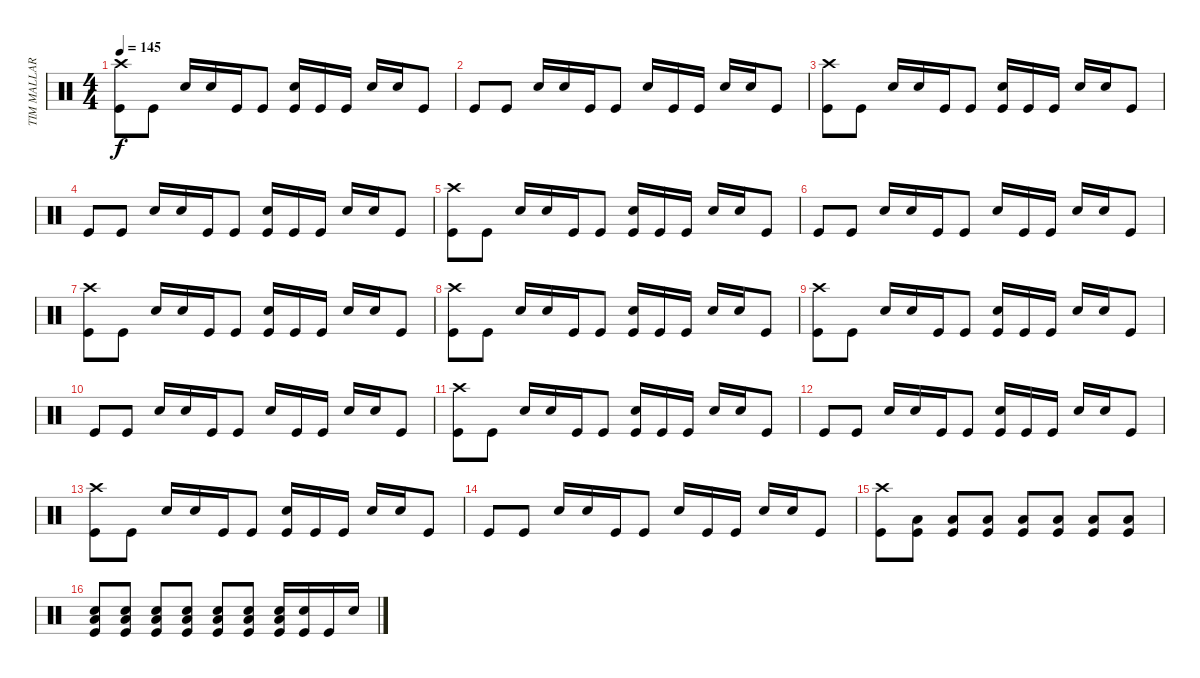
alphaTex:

\track ("TIM MALLARE - drums" "TIM MALLAR") {instrument percussion}
\staff {score}
\articulation defaults
\ts (4 4)
\tempo 145
\clef neutral
\ks c
("Crash high (hit)" "Kick (hit)").8{dy f} "Kick (hit)".8 "Electric Snare (hit)".16 "Electric Snare (hit)".16 "Kick (hit)".16 "Kick (hit)".8 ("Electric Snare (hit)" "Kick (hit)").16 "Kick (hit)".16 "Kick (hit)".16 "Electric Snare (hit)".16 "Electric Snare (hit)".16 "Kick (hit)".8 |
"Kick (hit)".8 "Kick (hit)".8 "Electric Snare (hit)".16 "Electric Snare (hit)".16 "Kick (hit)".16 "Kick (hit)".8 "Electric Snare (hit)".16 "Kick (hit)".16 "Kick (hit)".16 "Electric Snare (hit)".16 "Electric Snare (hit)".16 "Kick (hit)".8 |
("Crash high (hit)" "Kick (hit)").8 "Kick (hit)".8 "Electric Snare (hit)".16 "Electric Snare (hit)".16 "Kick (hit)".16 "Kick (hit)".8 ("Electric Snare (hit)" "Kick (hit)").16 "Kick (hit)".16 "Kick (hit)".16 "Electric Snare (hit)".16 "Electric Snare (hit)".16 "Kick (hit)".8 |
"Kick (hit)".8 "Kick (hit)".8 "Electric Snare (hit)".16 "Electric Snare (hit)".16 "Kick (hit)".16 "Kick (hit)".8 ("Electric Snare (hit)" "Kick (hit)").16 "Kick (hit)".16 "Kick (hit)".16 "Electric Snare (hit)".16 "Electric Snare (hit)".16 "Kick (hit)".8 |
("Crash high (hit)" "Kick (hit)").8 "Kick (hit)".8 "Electric Snare (hit)".16 "Electric Snare (hit)".16 "Kick (hit)".16 "Kick (hit)".8 ("Electric Snare (hit)" "Kick (hit)").16 "Kick (hit)".16 "Kick (hit)".16 "Electric Snare (hit)".16 "Electric Snare (hit)".16 "Kick (hit)".8 |
"Kick (hit)".8 "Kick (hit)".8 "Electric Snare (hit)".16 "Electric Snare (hit)".16 "Kick (hit)".16 "Kick (hit)".8 "Electric Snare (hit)".16 "Kick (hit)".16 "Kick (hit)".16 "Electric Snare (hit)".16 "Electric Snare (hit)".16 "Kick (hit)".8 |
("Crash high (hit)" "Kick (hit)").8 "Kick (hit)".8 "Electric Snare (hit)".16 "Electric Snare (hit)".16 "Kick (hit)".16 "Kick (hit)".8 ("Electric Snare (hit)" "Kick (hit)").16 "Kick (hit)".16 "Kick (hit)".16 "Electric Snare (hit)".16 "Electric Snare (hit)".16 "Kick (hit)".8 |
("Crash high (hit)" "Kick (hit)").8 "Kick (hit)".8 "Electric Snare (hit)".16 "Electric Snare (hit)".16 "Kick (hit)".16 "Kick (hit)".8 ("Electric Snare (hit)" "Kick (hit)").16 "Kick (hit)".16 "Kick (hit)".16 "Electric Snare (hit)".16 "Electric Snare (hit)".16 "Kick (hit)".8 |
("Crash high (hit)" "Kick (hit)").8 "Kick (hit)".8 "Electric Snare (hit)".16 "Electric Snare (hit)".16 "Kick (hit)".16 "Kick (hit)".8 ("Electric Snare (hit)" "Kick (hit)").16 "Kick (hit)".16 "Kick (hit)".16 "Electric Snare (hit)".16 "Electric Snare (hit)".16 "Kick (hit)".8 |
"Kick (hit)".8 "Kick (hit)".8 "Electric Snare (hit)".16 "Electric Snare (hit)".16 "Kick (hit)".16 "Kick (hit)".8 "Electric Snare (hit)".16 "Kick (hit)".16 "Kick (hit)".16 "Electric Snare (hit)".16 "Electric Snare (hit)".16 "Kick (hit)".8 |
("Crash high (hit)" "Kick (hit)").8 "Kick (hit)".8 "Electric Snare (hit)".16 "Electric Snare (hit)".16 "Kick (hit)".16 "Kick (hit)".8 ("Electric Snare (hit)" "Kick (hit)").16 "Kick (hit)".16 "Kick (hit)".16 "Electric Snare (hit)".16 "Electric Snare (hit)".16 "Kick (hit)".8 |
"Kick (hit)".8 "Kick (hit)".8 "Electric Snare (hit)".16 "Electric Snare (hit)".16 "Kick (hit)".16 "Kick (hit)".8 ("Electric Snare (hit)" "Kick (hit)").16 "Kick (hit)".16 "Kick (hit)".16 "Electric Snare (hit)".16 "Electric Snare (hit)".16 "Kick (hit)".8 |
("Crash high (hit)" "Kick (hit)").8 "Kick (hit)".8 "Electric Snare (hit)".16 "Electric Snare (hit)".16 "Kick (hit)".16 "Kick (hit)".8 ("Electric Snare (hit)" "Kick (hit)").16 "Kick (hit)".16 "Kick (hit)".16 "Electric Snare (hit)".16 "Electric Snare (hit)".16 "Kick (hit)".8 |
"Kick (hit)".8 "Kick (hit)".8 "Electric Snare (hit)".16 "Electric Snare (hit)".16 "Kick (hit)".16 "Kick (hit)".8 "Electric Snare (hit)".16 "Kick (hit)".16 "Kick (hit)".16 "Electric Snare (hit)".16 "Electric Snare (hit)".16 "Kick (hit)".8 |
("Crash high (hit)" "Kick (hit)").8 ("Low Tom (hit)" "Kick (hit)").8 ("Low Tom (hit)" "Kick (hit)").8 ("Low Tom (hit)" "Kick (hit)").8 ("Low Tom (hit)" "Kick (hit)").8 ("Low Tom (hit)" "Kick (hit)").8 ("Low Tom (hit)" "Kick (hit)").8 ("Low Tom (hit)" "Kick (hit)").8 |
("Low Tom (hit)" "Electric Snare (hit)" "Kick (hit)").8 ("Low Tom (hit)" "Electric Snare (hit)" "Kick (hit)").8 ("Low Tom (hit)" "Electric Snare (hit)" "Kick (hit)").8 ("Low Tom (hit)" "Electric Snare (hit)" "Kick (hit)").8 ("Low Tom (hit)" "Electric Snare (hit)" "Kick (hit)").8 ("Low Tom (hit)" "Electric Snare (hit)" "Kick (hit)").8 ("Low Tom (hit)" "Electric Snare (hit)" "Kick (hit)").16 ("Electric Snare (hit)" "Kick (hit)").16 "Kick (hit)".16 "Electric Snare (hit)".16
